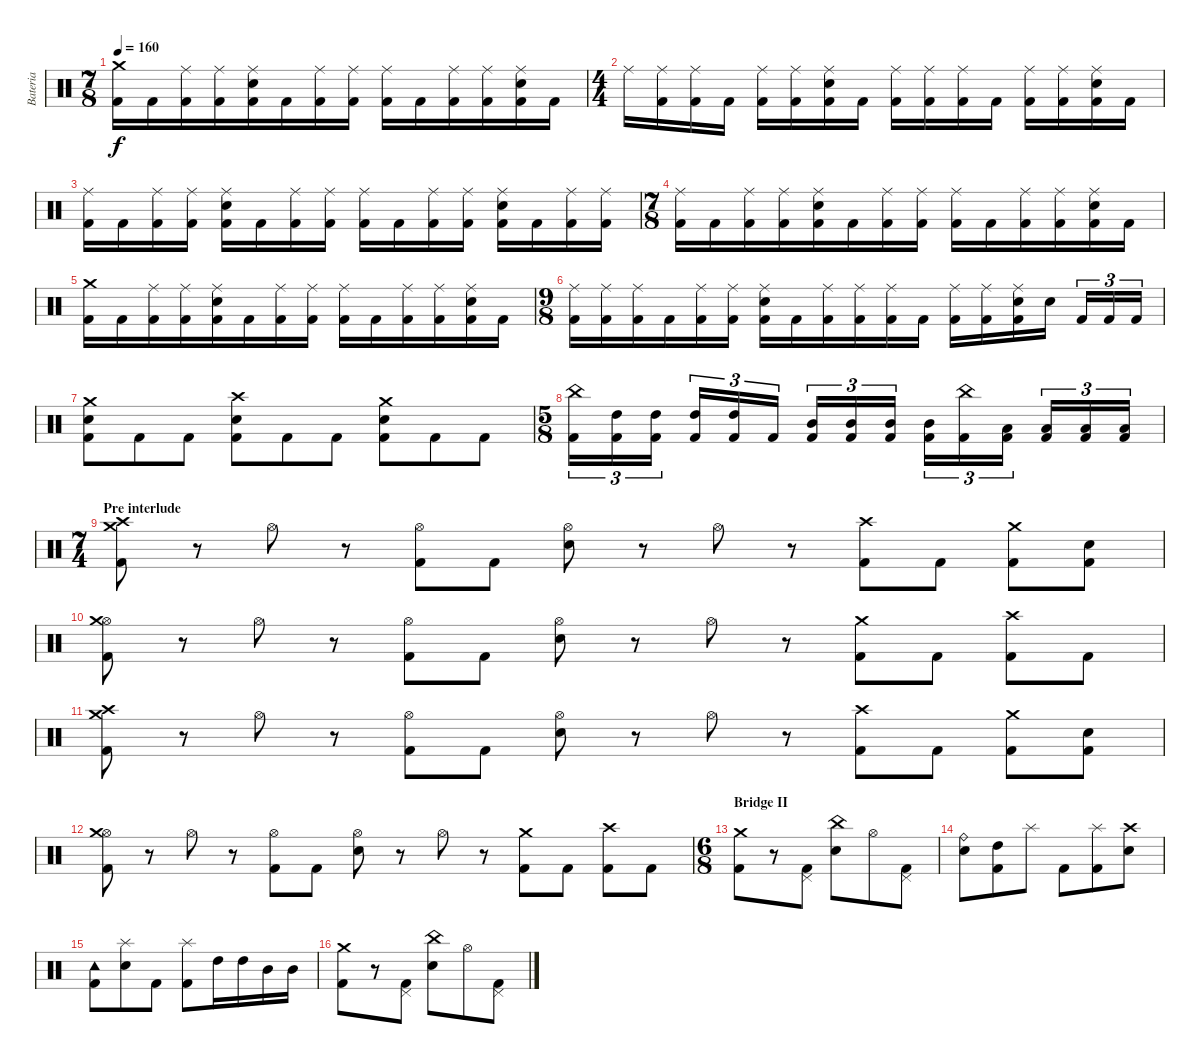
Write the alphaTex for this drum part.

\track ("Bateria" "Bateria") {instrument percussion}
\staff {score}
\articulation defaults
\ts (7 8)
\tempo 160
\clef neutral
\ks c
("Crash medium (hit)" "Kick (hit) 2").16{dy f} "Kick (hit) 2".16 ("Ride (middle)" "Kick (hit) 2").16 ("Ride (middle)" "Kick (hit) 2").16 ("Ride (middle)" "Electric Snare (hit)" "Kick (hit) 2").16 "Kick (hit) 2".16 ("Ride (middle)" "Kick (hit) 2").16 ("Ride (middle)" "Kick (hit) 2").16 ("Ride (middle)" "Kick (hit) 2").16 "Kick (hit) 2".16 ("Ride (middle)" "Kick (hit) 2").16 ("Ride (middle)" "Kick (hit) 2").16 ("Ride (middle)" "Electric Snare (hit)" "Kick (hit) 2").16 "Kick (hit) 2".16 |
\ts (4 4)
"Ride (middle)".16 ("Ride (middle)" "Kick (hit) 2").16 ("Ride (middle)" "Kick (hit) 2").16 "Kick (hit) 2".16 ("Ride (middle)" "Kick (hit) 2").16 ("Ride (middle)" "Kick (hit) 2").16 ("Ride (middle)" "Electric Snare (hit)" "Kick (hit) 2").16 "Kick (hit) 2".16 ("Ride (middle)" "Kick (hit) 2").16 ("Ride (middle)" "Kick (hit) 2").16 ("Ride (middle)" "Kick (hit) 2").16 "Kick (hit) 2".16 ("Ride (middle)" "Kick (hit) 2").16 ("Ride (middle)" "Kick (hit) 2").16 ("Ride (middle)" "Electric Snare (hit)" "Kick (hit) 2").16 "Kick (hit) 2".16 |
("Ride (middle)" "Kick (hit) 2").16 "Kick (hit) 2".16 ("Ride (middle)" "Kick (hit) 2").16 ("Ride (middle)" "Kick (hit) 2").16 ("Ride (middle)" "Electric Snare (hit)" "Kick (hit) 2").16 "Kick (hit) 2".16 ("Ride (middle)" "Kick (hit) 2").16 ("Ride (middle)" "Kick (hit) 2").16 ("Ride (middle)" "Kick (hit) 2").16 "Kick (hit) 2".16 ("Ride (middle)" "Kick (hit) 2").16 ("Ride (middle)" "Kick (hit) 2").16 ("Ride (middle)" "Electric Snare (hit)" "Kick (hit) 2").16 "Kick (hit) 2".16 ("Ride (middle)" "Kick (hit) 2").16 ("Ride (middle)" "Kick (hit) 2").16 |
\ts (7 8)
("Ride (middle)" "Kick (hit) 2").16 "Kick (hit) 2".16 ("Ride (middle)" "Kick (hit) 2").16 ("Ride (middle)" "Kick (hit) 2").16 ("Ride (middle)" "Electric Snare (hit)" "Kick (hit) 2").16 "Kick (hit) 2".16 ("Ride (middle)" "Kick (hit) 2").16 ("Ride (middle)" "Kick (hit) 2").16 ("Ride (middle)" "Kick (hit) 2").16 "Kick (hit) 2".16 ("Ride (middle)" "Kick (hit) 2").16 ("Ride (middle)" "Kick (hit) 2").16 ("Ride (middle)" "Electric Snare (hit)" "Kick (hit) 2").16 "Kick (hit) 2".16 |
("Crash medium (hit)" "Kick (hit) 2").16 "Kick (hit) 2".16 ("Ride (middle)" "Kick (hit) 2").16 ("Ride (middle)" "Kick (hit) 2").16 ("Ride (middle)" "Electric Snare (hit)" "Kick (hit) 2").16 "Kick (hit) 2".16 ("Ride (middle)" "Kick (hit) 2").16 ("Ride (middle)" "Kick (hit) 2").16 ("Ride (middle)" "Kick (hit) 2").16 "Kick (hit) 2".16 ("Ride (middle)" "Kick (hit) 2").16 ("Ride (middle)" "Kick (hit) 2").16 ("Ride (middle)" "Electric Snare (hit)" "Kick (hit) 2").16 "Kick (hit) 2".16 |
\ts (9 8)
("Ride (middle)" "Kick (hit) 2").16 ("Ride (middle)" "Kick (hit) 2").16 ("Ride (middle)" "Kick (hit) 2").16 "Kick (hit) 2".16 ("Ride (middle)" "Kick (hit) 2").16 ("Ride (middle)" "Kick (hit) 2").16 ("Ride (middle)" "Electric Snare (hit)" "Kick (hit) 2").16 "Kick (hit) 2".16 ("Ride (middle)" "Kick (hit) 2").16 ("Ride (middle)" "Kick (hit) 2").16 ("Ride (middle)" "Kick (hit) 2").16 "Kick (hit) 2".16 ("Ride (middle)" "Kick (hit) 2").16 ("Ride (middle)" "Kick (hit) 2").16 ("Ride (middle)" "Electric Snare (hit)" "Kick (hit) 2").16 "Electric Snare (hit)".16 "Kick (hit) 2".16{tu (3 2)} "Kick (hit) 2".16{tu (3 2)} "Kick (hit) 2".16{tu (3 2)} |
("Crash medium (hit)" "Electric Snare (hit)" "Kick (hit) 2").8 "Kick (hit) 2".8 "Kick (hit) 2".8 ("Crash high (hit)" "Electric Snare (hit)" "Kick (hit) 2").8 "Kick (hit) 2".8 "Kick (hit) 2".8 ("Crash medium (hit)" "Electric Snare (hit)" "Kick (hit) 2").8 "Kick (hit) 2".8 "Kick (hit) 2".8 |
\ts (5 8)
("China (hit)" "Kick (hit) 2").16{tu (3 2)} ("High Tom (hit)" "Kick (hit) 2").16{tu (3 2)} ("High Tom (hit)" "Kick (hit) 2").16{tu (3 2)} ("High Tom (hit)" "Kick (hit) 2").16{tu (3 2)} ("High Tom (hit)" "Kick (hit) 2").16{tu (3 2)} "Kick (hit) 2".16{tu (3 2)} ("Mid Tom (hit)" "Kick (hit) 2").16{tu (3 2)} ("Mid Tom (hit)" "Kick (hit) 2").16{tu (3 2)} ("Mid Tom (hit)" "Kick (hit) 2").16{tu (3 2)} ("Mid Tom (hit)" "Kick (hit) 2").16{tu (3 2)} ("China (hit)" "Kick (hit) 2").16{tu (3 2)} ("Low Tom (hit)" "Kick (hit) 2").16{tu (3 2)} ("Low Tom (hit)" "Kick (hit) 2").16{tu (3 2)} ("Low Tom (hit)" "Kick (hit) 2").16{tu (3 2)} ("Low Tom (hit)" "Kick (hit) 2").16{tu (3 2)} |
\ts (7 4)
\section ("" "Pre interlude")
("Crash medium (hit)" "Crash high (hit)" "Kick (hit) 2").8 r.8 "Hi-Hat (open)".8 r.8 ("Hi-Hat (open)" "Kick (hit) 2").8 "Kick (hit) 2".8 ("Hi-Hat (open)" "Electric Snare (hit)").8 r.8 "Hi-Hat (open)".8 r.8 ("Crash high (hit)" "Kick (hit) 2").8 "Kick (hit) 2".8 ("Crash medium (hit)" "Kick (hit) 2").8 ("Electric Snare (hit)" "Kick (hit) 2").8 |
("Hi-Hat (open)" "Crash medium (hit)" "Kick (hit) 2").8 r.8 "Hi-Hat (open)".8 r.8 ("Hi-Hat (open)" "Kick (hit) 2").8 "Kick (hit) 2".8 ("Hi-Hat (open)" "Electric Snare (hit)").8 r.8 "Hi-Hat (open)".8 r.8 ("Crash medium (hit)" "Kick (hit) 2").8 "Kick (hit) 2".8 ("Crash high (hit)" "Kick (hit) 2").8 "Kick (hit) 2".8 |
("Crash medium (hit)" "Crash high (hit)" "Kick (hit) 2").8 r.8 "Hi-Hat (open)".8 r.8 ("Hi-Hat (open)" "Kick (hit) 2").8 "Kick (hit) 2".8 ("Hi-Hat (open)" "Electric Snare (hit)").8 r.8 "Hi-Hat (open)".8 r.8 ("Crash high (hit)" "Kick (hit) 2").8 "Kick (hit) 2".8 ("Crash medium (hit)" "Kick (hit) 2").8 ("Electric Snare (hit)" "Kick (hit) 2").8 |
("Hi-Hat (open)" "Crash medium (hit)" "Kick (hit) 2").8 r.8 "Hi-Hat (open)".8 r.8 ("Hi-Hat (open)" "Kick (hit) 2").8 "Kick (hit) 2".8 ("Hi-Hat (open)" "Electric Snare (hit)").8 r.8 "Hi-Hat (open)".8 r.8 ("Crash medium (hit)" "Kick (hit) 2").8 "Kick (hit) 2".8 ("Crash high (hit)" "Kick (hit) 2").8 "Kick (hit) 2".8 |
\ts (6 8)
\section ("" "Bridge II")
("Crash medium (hit)" "Kick (hit) 2").8 r.8 ("Pedal Hi-Hat (hit)" "Kick (hit) 2").8 ("China (hit)" "Electric Snare (hit)").8 "Hi-Hat (open)".8 ("Pedal Hi-Hat (hit)" "Kick (hit) 2").8 |
("Ride (bell)" "Electric Snare (hit)").8 ("High Tom (hit)" "Kick (hit) 2").8 "Splash (hit)".8 "Kick (hit) 2".8 ("Splash (hit)" "Kick (hit) 2").8 ("Crash high (hit)" "Electric Snare (hit)").8 |
("Tambourine (hit)" "Kick (hit) 2").8 ("Splash (hit)" "Electric Snare (hit)").8 "Kick (hit) 2".8 ("Splash (hit)" "Kick (hit) 2").8 "High Tom (hit)".16 "High Tom (hit)".16 "Mid Tom (hit)".16 "Mid Tom (hit)".16 |
("Crash medium (hit)" "Kick (hit) 2").8 r.8 ("Pedal Hi-Hat (hit)" "Kick (hit) 2").8 ("China (hit)" "Electric Snare (hit)").8 "Hi-Hat (open)".8 ("Pedal Hi-Hat (hit)" "Kick (hit) 2").8
